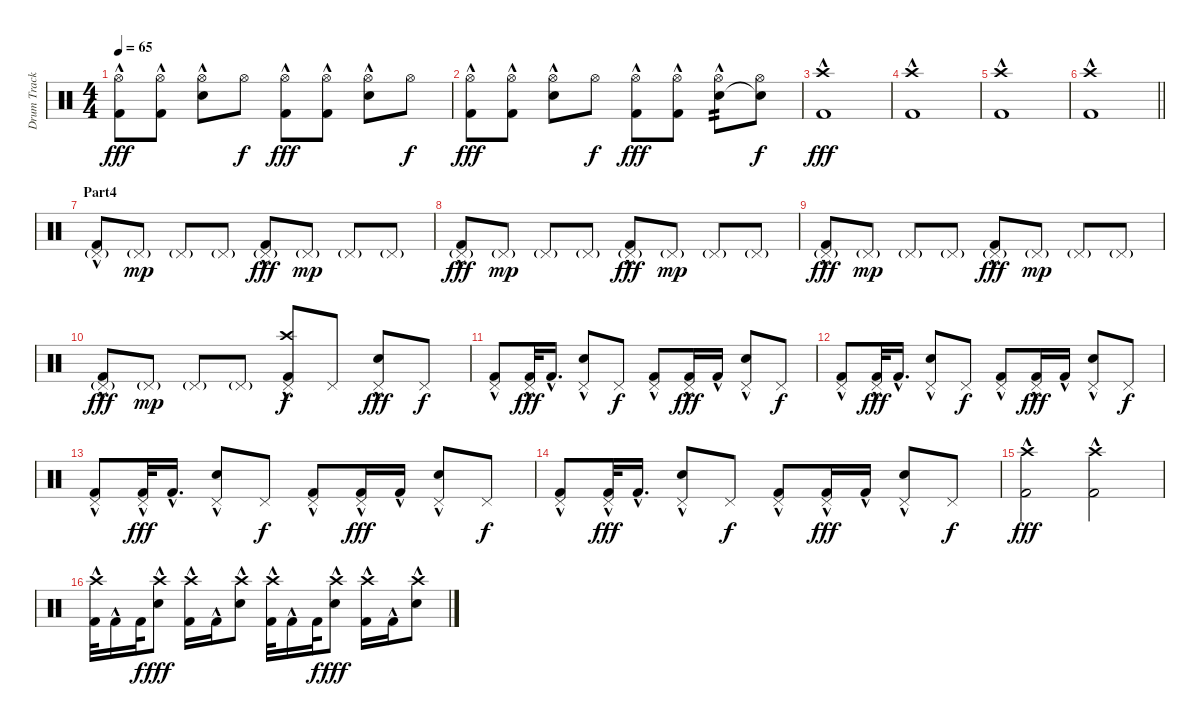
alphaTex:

\track ("Drum Track" "Drum Track") {instrument percussion}
\staff {score}
\articulation defaults
\ts (4 4)
\tempo 65
\clef neutral
\ks c
("Hi-Hat (open)" "Kick (hit) 2"{hac}).8{dy fff} ("Hi-Hat (open)" "Kick (hit) 2"{hac}).8 ("Hi-Hat (open)" "Electric Snare (hit)"{hac}).8 "Hi-Hat (open)".8{dy f} ("Hi-Hat (open)" "Kick (hit) 2"{hac}).8{dy fff} ("Hi-Hat (open)" "Kick (hit) 2"{hac}).8 ("Hi-Hat (open)" "Electric Snare (hit)"{hac}).8 "Hi-Hat (open)".8{dy f} |
("Hi-Hat (open)" "Kick (hit) 2"{hac}).8{dy fff} ("Hi-Hat (open)" "Kick (hit) 2"{hac}).8 ("Hi-Hat (open)" "Electric Snare (hit)"{hac}).8 "Hi-Hat (open)".8{dy f} ("Hi-Hat (open)" "Kick (hit) 2"{hac}).8{dy fff} ("Hi-Hat (open)" "Kick (hit) 2"{hac}).8 ("Hi-Hat (open)" "Electric Snare (hit)"{hac}).8{tp 2} ("Hi-Hat (open)" "Snare (hit)"{t}).8{dy f} |
("Crash high (hit)" "Kick (hit) 2"{hac}).1{dy fff} |
("Crash high (hit)" "Kick (hit) 2"{hac}).1 |
("Crash high (hit)" "Kick (hit) 2"{hac}).1 |
\barLineRight lightlight
("Crash high (hit)" "Kick (hit) 2"{hac}).1 |
\section ("" "Part4")
("Pedal Hi-Hat (hit)"{g} "Kick (hit) 2"{hac}).8 "Pedal Hi-Hat (hit)"{g}.8{dy mp} "Pedal Hi-Hat (hit)"{g}.8 "Pedal Hi-Hat (hit)"{g}.8 ("Pedal Hi-Hat (hit)"{g} "Kick (hit) 2"{hac}).8{dy fff} "Pedal Hi-Hat (hit)"{g}.8{dy mp} "Pedal Hi-Hat (hit)"{g}.8 "Pedal Hi-Hat (hit)"{g}.8 |
("Pedal Hi-Hat (hit)"{g} "Kick (hit) 2"{hac}).8{dy fff} "Pedal Hi-Hat (hit)"{g}.8{dy mp} "Pedal Hi-Hat (hit)"{g}.8 "Pedal Hi-Hat (hit)"{g}.8 ("Pedal Hi-Hat (hit)"{g} "Kick (hit) 2"{hac}).8{dy fff} "Pedal Hi-Hat (hit)"{g}.8{dy mp} "Pedal Hi-Hat (hit)"{g}.8 "Pedal Hi-Hat (hit)"{g}.8 |
("Pedal Hi-Hat (hit)"{g} "Kick (hit) 2"{hac}).8{dy fff} "Pedal Hi-Hat (hit)"{g}.8{dy mp} "Pedal Hi-Hat (hit)"{g}.8 "Pedal Hi-Hat (hit)"{g}.8 ("Pedal Hi-Hat (hit)"{g} "Kick (hit) 2"{hac}).8{dy fff} "Pedal Hi-Hat (hit)"{g}.8{dy mp} "Pedal Hi-Hat (hit)"{g}.8 "Pedal Hi-Hat (hit)"{g}.8 |
("Pedal Hi-Hat (hit)"{g} "Kick (hit) 2"{hac}).8{dy fff} "Pedal Hi-Hat (hit)"{g}.8{dy mp} "Pedal Hi-Hat (hit)"{g}.8 "Pedal Hi-Hat (hit)"{g}.8 ("Crash high (hit)" "Pedal Hi-Hat (hit)" "Kick (hit) 2"{hac}).8{dy f} "Pedal Hi-Hat (hit)".8 ("Pedal Hi-Hat (hit)" "Electric Snare (hit)"{hac}).8{dy fff} "Pedal Hi-Hat (hit)".8{dy f} |
("Pedal Hi-Hat (hit)" "Kick (hit) 2"{hac}).8 ("Pedal Hi-Hat (hit)" "Kick (hit) 2"{hac}).32{dy fff} "Kick (hit) 2"{hac}.16{d} ("Pedal Hi-Hat (hit)" "Electric Snare (hit)"{hac}).8 "Pedal Hi-Hat (hit)".8{dy f} ("Pedal Hi-Hat (hit)" "Kick (hit) 2"{hac}).8 ("Pedal Hi-Hat (hit)" "Kick (hit) 2"{hac}).16{dy fff} "Kick (hit) 2"{hac}.16 ("Pedal Hi-Hat (hit)" "Electric Snare (hit)"{hac}).8 "Pedal Hi-Hat (hit)".8{dy f} |
("Pedal Hi-Hat (hit)" "Kick (hit) 2"{hac}).8 ("Pedal Hi-Hat (hit)" "Kick (hit) 2"{hac}).32{dy fff} "Kick (hit) 2"{hac}.16{d} ("Pedal Hi-Hat (hit)" "Electric Snare (hit)"{hac}).8 "Pedal Hi-Hat (hit)".8{dy f} ("Pedal Hi-Hat (hit)" "Kick (hit) 2"{hac}).8 ("Pedal Hi-Hat (hit)" "Kick (hit) 2"{hac}).16{dy fff} "Kick (hit) 2"{hac}.16 ("Pedal Hi-Hat (hit)" "Electric Snare (hit)"{hac}).8 "Pedal Hi-Hat (hit)".8{dy f} |
("Pedal Hi-Hat (hit)" "Kick (hit) 2"{hac}).8 ("Pedal Hi-Hat (hit)" "Kick (hit) 2"{hac}).32{dy fff} "Kick (hit) 2"{hac}.16{d} ("Pedal Hi-Hat (hit)" "Electric Snare (hit)"{hac}).8 "Pedal Hi-Hat (hit)".8{dy f} ("Pedal Hi-Hat (hit)" "Kick (hit) 2"{hac}).8 ("Pedal Hi-Hat (hit)" "Kick (hit) 2"{hac}).16{dy fff} "Kick (hit) 2"{hac}.16 ("Pedal Hi-Hat (hit)" "Electric Snare (hit)"{hac}).8 "Pedal Hi-Hat (hit)".8{dy f} |
("Pedal Hi-Hat (hit)" "Kick (hit) 2"{hac}).8 ("Pedal Hi-Hat (hit)" "Kick (hit) 2"{hac}).32{dy fff} "Kick (hit) 2"{hac}.16{d} ("Pedal Hi-Hat (hit)" "Electric Snare (hit)"{hac}).8 "Pedal Hi-Hat (hit)".8{dy f} ("Pedal Hi-Hat (hit)" "Kick (hit) 2"{hac}).8 ("Pedal Hi-Hat (hit)" "Kick (hit) 2"{hac}).16{dy fff} "Kick (hit) 2"{hac}.16 ("Pedal Hi-Hat (hit)" "Electric Snare (hit)"{hac}).8 "Pedal Hi-Hat (hit)".8{dy f} |
("Crash high (hit)" "Kick (hit) 2"{hac}).2{dy fff} ("Crash high (hit)" "Kick (hit) 2"{hac}).2 |
("Crash high (hit)" "Kick (hit) 2"{hac}).32 "Kick (hit) 2"{hac}.16 "Kick (hit) 2".32{dy f} ("Crash high (hit)" "Electric Snare (hit)"{hac}).8{dy fff} ("Crash high (hit)" "Kick (hit) 2"{hac}).16 "Kick (hit) 2"{hac}.16 ("Crash high (hit)" "Electric Snare (hit)"{hac}).8 ("Crash high (hit)" "Kick (hit) 2"{hac}).32 "Kick (hit) 2"{hac}.16 "Kick (hit) 2".32{dy f} ("Crash high (hit)" "Electric Snare (hit)"{hac}).8{dy fff} ("Crash high (hit)" "Kick (hit) 2"{hac}).16 "Kick (hit) 2"{hac}.16 ("Crash high (hit)" "Electric Snare (hit)"{hac}).8
